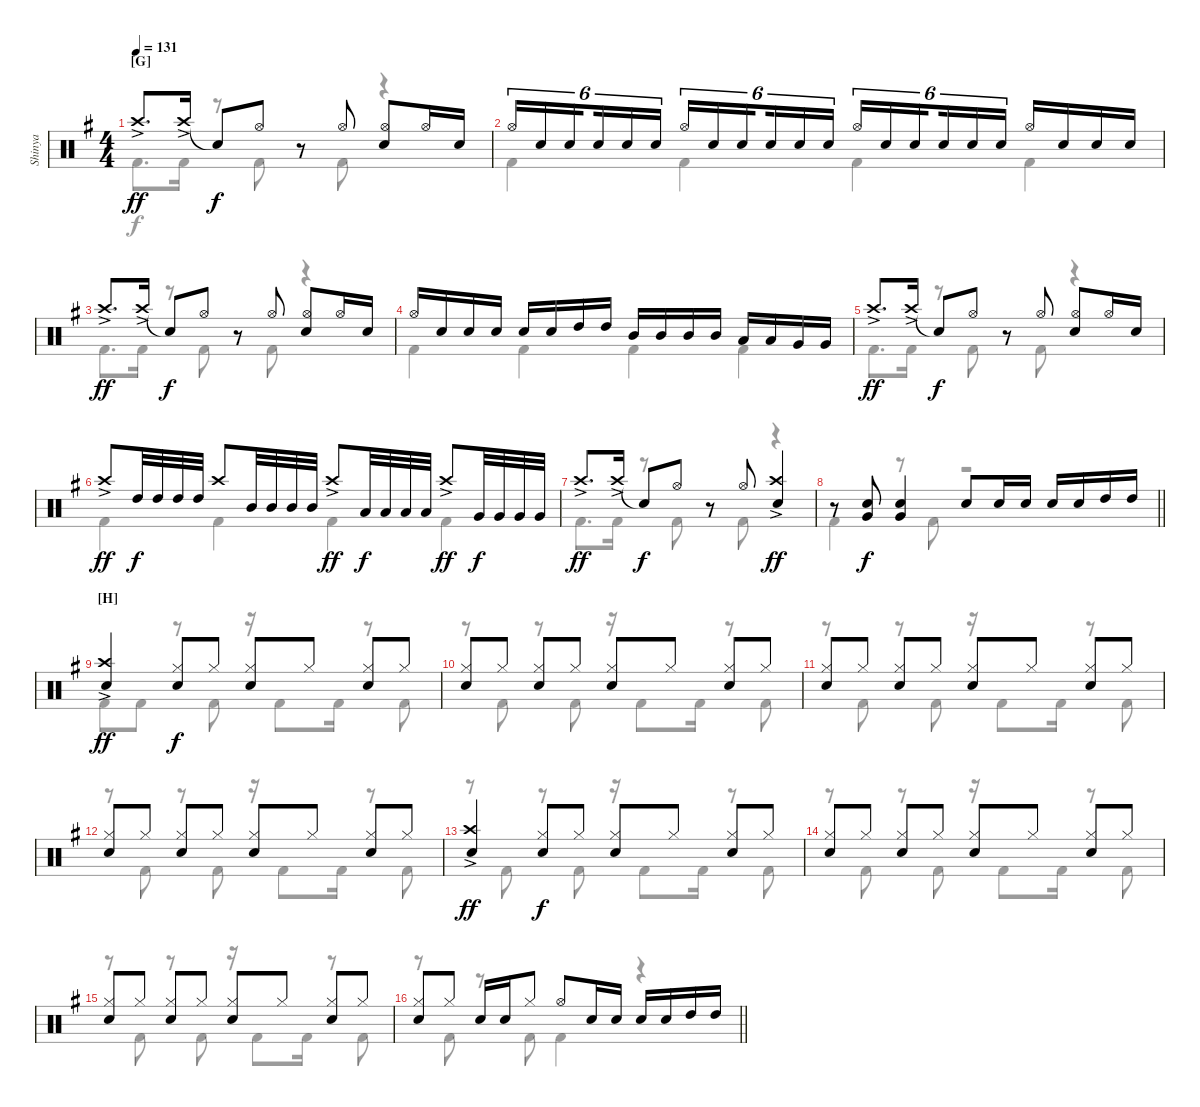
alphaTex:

\track ("Shinya" "Shinya") {instrument percussion}
\staff {score}
\articulation defaults
\voice
\ts (4 4)
\section ("" "[G]")
\tempo 131
\clef neutral
\ks eminor "Crash high (hit)"{ac}.8{d dy ff} "Crash high (hit)"{ac}.16 "Snare (hit)"{t}.8{dy f} "Hi-Hat (open)".8
r.8 "Hi-Hat (open)".8 ("Hi-Hat (open)" "Snare (hit) 2").8 "Hi-Hat (open)".16 "Snare (hit) 2".16 |
"Hi-Hat (open)".16{tu (6 4)} "Snare (hit) 2".16{tu (6 4)} "Snare (hit) 2".16{tu (6 4) beam splitsecondary} "Snare (hit) 2".16{tu (6 4)} "Snare (hit) 2".16{tu (6 4)} "Snare (hit) 2".16{tu (6 4)} "Hi-Hat (open)".16{tu (6 4)} "Snare (hit) 2".16{tu (6 4)} "Snare (hit) 2".16{tu (6 4) beam splitsecondary} "Snare (hit) 2".16{tu (6 4)} "Snare (hit) 2".16{tu (6 4)} "Snare (hit) 2".16{tu (6 4)} "Hi-Hat (open)".16{tu (6 4)} "Snare (hit) 2".16{tu (6 4)} "Snare (hit) 2".16{tu (6 4) beam splitsecondary} "Snare (hit) 2".16{tu (6 4)} "Snare (hit) 2".16{tu (6 4)} "Snare (hit) 2".16{tu (6 4)} "Hi-Hat (open)".16 "Snare (hit) 2".16 "Snare (hit) 2".16 "Snare (hit) 2".16 |
"Crash high (hit)"{ac}.8{d dy ff} "Crash high (hit)"{ac}.16 "Snare (hit)"{t}.8{dy f} "Hi-Hat (open)".8 r.8 "Hi-Hat (open)".8 ("Hi-Hat (open)" "Snare (hit) 2").8 "Hi-Hat (open)".16 "Snare (hit) 2".16 |
"Hi-Hat (open)".16 "Snare (hit) 2".16 "Snare (hit) 2".16 "Snare (hit) 2".16 "Snare (hit) 2".16 "Snare (hit) 2".16 "High Tom (hit)".16 "High Tom (hit)".16 "Mid Tom (hit)".16 "Mid Tom (hit)".16 "Mid Tom (hit)".16 "Mid Tom (hit)".16 "Low Tom (hit)".16 "Low Tom (hit)".16 "Very Low Tom (hit)".16 "Very Low Tom (hit)".16 |
"Crash high (hit)"{ac}.8{d dy ff} "Crash high (hit)"{ac}.16 "Snare (hit)"{t}.8{dy f} "Hi-Hat (open)".8 r.8 "Hi-Hat (open)".8 ("Hi-Hat (open)" "Snare (hit) 2").8 "Hi-Hat (open)".16 "Snare (hit) 2".16 |
"Crash high (hit)"{ac}.8{dy ff} "High Tom (hit)".32{dy f} "High Tom (hit)".32 "High Tom (hit)".32 "High Tom (hit)".32 "Crash high (hit)".8 "Mid Tom (hit)".32 "Mid Tom (hit)".32 "Mid Tom (hit)".32 "Mid Tom (hit)".32 "Crash high (hit)"{ac}.8{dy ff} "Low Tom (hit)".32{dy f} "Low Tom (hit)".32 "Low Tom (hit)".32 "Low Tom (hit)".32 "Crash high (hit)"{ac}.8{dy ff} "Very Low Tom (hit)".32{dy f} "Very Low Tom (hit)".32 "Very Low Tom (hit)".32 "Very Low Tom (hit)".32 |
"Crash high (hit)"{ac}.8{d dy ff} "Crash high (hit)"{ac}.16 "Snare (hit)"{t}.8{dy f} "Hi-Hat (open)".8 r.8 "Hi-Hat (open)".8 ("Crash high (hit)"{ac} "Snare (hit) 2").4{dy ff} |
\barLineRight lightlight
r.8 ("Snare (hit) 2" "Very Low Tom (hit)").8{dy f} ("Snare (hit) 2" "Very Low Tom (hit)").4 "Snare (hit) 2".8 "Snare (hit) 2".16 "Snare (hit) 2".16 "Snare (hit) 2".16 "Snare (hit) 2".16 "High Tom (hit)".16 "High Tom (hit)".16 |
\section ("" "[H]")
("Crash high (hit)"{ac} "Snare (hit) 2").4{dy ff} ("Hi-Hat (closed)" "Snare (hit) 2").8{dy f} "Hi-Hat (closed)".8 ("Hi-Hat (closed)" "Snare (hit) 2").8 "Hi-Hat (closed)".8 ("Hi-Hat (closed)" "Snare (hit) 2").8 "Hi-Hat (closed)".8 |
("Hi-Hat (closed)" "Snare (hit) 2").8 "Hi-Hat (closed)".8 ("Hi-Hat (closed)" "Snare (hit) 2").8 "Hi-Hat (closed)".8 ("Hi-Hat (closed)" "Snare (hit) 2").8 "Hi-Hat (closed)".8 ("Hi-Hat (closed)" "Snare (hit) 2").8 "Hi-Hat (closed)".8 |
("Hi-Hat (closed)" "Snare (hit) 2").8 "Hi-Hat (closed)".8 ("Hi-Hat (closed)" "Snare (hit) 2").8 "Hi-Hat (closed)".8 ("Hi-Hat (closed)" "Snare (hit) 2").8 "Hi-Hat (closed)".8 ("Hi-Hat (closed)" "Snare (hit) 2").8 "Hi-Hat (closed)".8 |
("Hi-Hat (closed)" "Snare (hit) 2").8 "Hi-Hat (closed)".8 ("Hi-Hat (closed)" "Snare (hit) 2").8 "Hi-Hat (closed)".8 ("Hi-Hat (closed)" "Snare (hit) 2").8 "Hi-Hat (closed)".8 ("Hi-Hat (closed)" "Snare (hit) 2").8 "Hi-Hat (closed)".8 |
("Crash high (hit)"{ac} "Snare (hit) 2").4{dy ff} ("Hi-Hat (closed)" "Snare (hit) 2").8{dy f} "Hi-Hat (closed)".8 ("Hi-Hat (closed)" "Snare (hit) 2").8 "Hi-Hat (closed)".8 ("Hi-Hat (closed)" "Snare (hit) 2").8 "Hi-Hat (closed)".8 |
("Hi-Hat (closed)" "Snare (hit) 2").8 "Hi-Hat (closed)".8 ("Hi-Hat (closed)" "Snare (hit) 2").8 "Hi-Hat (closed)".8 ("Hi-Hat (closed)" "Snare (hit) 2").8 "Hi-Hat (closed)".8 ("Hi-Hat (closed)" "Snare (hit) 2").8 "Hi-Hat (closed)".8 |
("Hi-Hat (closed)" "Snare (hit) 2").8 "Hi-Hat (closed)".8 ("Hi-Hat (closed)" "Snare (hit) 2").8 "Hi-Hat (closed)".8 ("Hi-Hat (closed)" "Snare (hit) 2").8 "Hi-Hat (closed)".8 ("Hi-Hat (closed)" "Snare (hit) 2").8 "Hi-Hat (closed)".8 |
\barLineRight lightlight
("Hi-Hat (closed)" "Snare (hit) 2").8 "Hi-Hat (closed)".8 "Snare (hit) 2".16 "Snare (hit) 2".16 "Hi-Hat (closed)".8 "Hi-Hat (open)".8 "Snare (hit) 2".16 "Snare (hit) 2".16 "Snare (hit) 2".16 "Snare (hit) 2".16 "High Tom (hit)".16 "High Tom (hit)".16
\voice
\clef neutral
\ottava regular
\simile none
\ks eminor "Kick (hit) 2".8{d dy f} "Kick (hit) 2".16
r.8 "Kick (hit) 2".8 r.8 "Kick (hit) 2".8 r.4 |
"Kick (hit) 2".4 "Kick (hit) 2".4 "Kick (hit) 2".4 "Kick (hit) 2".4 |
"Kick (hit) 2".8{d} "Kick (hit) 2".16 r.8 "Kick (hit) 2".8 r.8 "Kick (hit) 2".8 r.4 |
"Kick (hit) 2".4 "Kick (hit) 2".4 "Kick (hit) 2".4 "Kick (hit) 2".4 |
"Kick (hit) 2".8{d} "Kick (hit) 2".16 r.8 "Kick (hit) 2".8 r.8 "Kick (hit) 2".8 r.4 |
"Kick (hit) 2".4 "Kick (hit) 2".4 "Kick (hit) 2".4 "Kick (hit) 2".4 |
"Kick (hit) 2".8{d} "Kick (hit) 2".16 r.8 "Kick (hit) 2".8 r.8 "Kick (hit) 2".8 r.4 |
\barLineRight lightlight "Kick (hit) 2".4
r.8 "Kick (hit) 2".8 r.2 |
"Kick (hit) 2".8 "Kick (hit) 2".8 r.8 "Kick (hit) 2".8 r.16 "Kick (hit) 2".8 "Kick (hit) 2".16 r.8 "Kick (hit) 2".8 |
r.8 "Kick (hit) 2".8 r.8 "Kick (hit) 2".8 r.16 "Kick (hit) 2".8 "Kick (hit) 2".16 r.8 "Kick (hit) 2".8 |
r.8 "Kick (hit) 2".8 r.8 "Kick (hit) 2".8 r.16 "Kick (hit) 2".8 "Kick (hit) 2".16 r.8 "Kick (hit) 2".8 |
r.8 "Kick (hit) 2".8 r.8 "Kick (hit) 2".8 r.16 "Kick (hit) 2".8 "Kick (hit) 2".16 r.8 "Kick (hit) 2".8 |
r.8 "Kick (hit) 2".8 r.8 "Kick (hit) 2".8 r.16 "Kick (hit) 2".8 "Kick (hit) 2".16 r.8 "Kick (hit) 2".8 |
r.8 "Kick (hit) 2".8 r.8 "Kick (hit) 2".8 r.16 "Kick (hit) 2".8 "Kick (hit) 2".16 r.8 "Kick (hit) 2".8 |
r.8 "Kick (hit) 2".8 r.8 "Kick (hit) 2".8 r.16 "Kick (hit) 2".8 "Kick (hit) 2".16 r.8 "Kick (hit) 2".8 |
\barLineRight lightlight
r.8 "Kick (hit) 2".8 r.8 "Kick (hit) 2".8 "Kick (hit) 2".4 r.4
